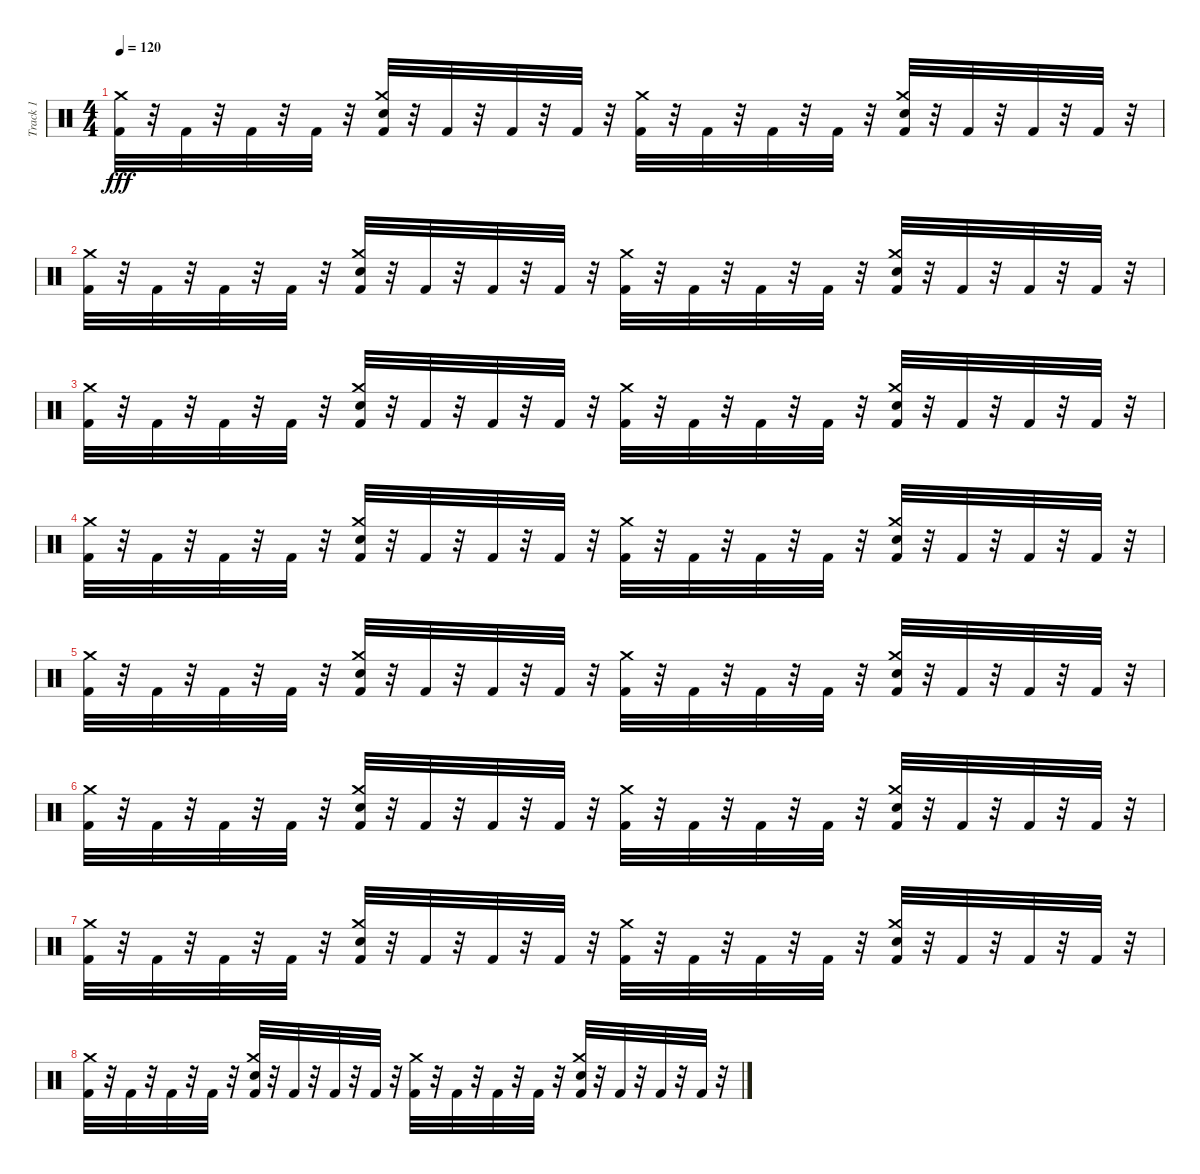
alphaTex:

\track ("Track 1" "Track 1") {instrument percussion}
\staff {score}
\articulation defaults
\ts (4 4)
\tempo 120
\clef neutral
\ks c
("Kick (hit) 2" "Crash medium (hit)").32{dy fff} r.32 "Kick (hit) 2".32 r.32 "Kick (hit) 2".32 r.32 "Kick (hit) 2".32 r.32 ("Crash medium (hit)" "Kick (hit) 2" "Snare (hit) 2").32 r.32 "Kick (hit) 2".32 r.32 "Kick (hit) 2".32 r.32 "Kick (hit) 2".32 r.32 ("Kick (hit) 2" "Crash medium (hit)").32 r.32 "Kick (hit) 2".32 r.32 "Kick (hit) 2".32 r.32 "Kick (hit) 2".32 r.32 ("Crash medium (hit)" "Kick (hit) 2" "Snare (hit) 2").32 r.32 "Kick (hit) 2".32 r.32 "Kick (hit) 2".32 r.32 "Kick (hit) 2".32 r.32 |
("Kick (hit) 2" "Crash medium (hit)").32 r.32 "Kick (hit) 2".32 r.32 "Kick (hit) 2".32 r.32 "Kick (hit) 2".32 r.32 ("Crash medium (hit)" "Kick (hit) 2" "Snare (hit) 2").32 r.32 "Kick (hit) 2".32 r.32 "Kick (hit) 2".32 r.32 "Kick (hit) 2".32 r.32 ("Kick (hit) 2" "Crash medium (hit)").32 r.32 "Kick (hit) 2".32 r.32 "Kick (hit) 2".32 r.32 "Kick (hit) 2".32 r.32 ("Snare (hit) 2" "Crash medium (hit)" "Kick (hit) 2").32 r.32 "Kick (hit) 2".32 r.32 "Kick (hit) 2".32 r.32 "Kick (hit) 2".32 r.32 |
("Kick (hit) 2" "Crash medium (hit)").32 r.32 "Kick (hit) 2".32 r.32 "Kick (hit) 2".32 r.32 "Kick (hit) 2".32 r.32 ("Crash medium (hit)" "Snare (hit) 2" "Kick (hit) 2").32 r.32 "Kick (hit) 2".32 r.32 "Kick (hit) 2".32 r.32 "Kick (hit) 2".32 r.32 ("Kick (hit) 2" "Crash medium (hit)").32 r.32 "Kick (hit) 2".32 r.32 "Kick (hit) 2".32 r.32 "Kick (hit) 2".32 r.32 ("Snare (hit) 2" "Crash medium (hit)" "Kick (hit) 2").32 r.32 "Kick (hit) 2".32 r.32 "Kick (hit) 2".32 r.32 "Kick (hit) 2".32 r.32 |
("Kick (hit) 2" "Crash medium (hit)").32 r.32 "Kick (hit) 2".32 r.32 "Kick (hit) 2".32 r.32 "Kick (hit) 2".32 r.32 ("Crash medium (hit)" "Kick (hit) 2" "Snare (hit) 2").32 r.32 "Kick (hit) 2".32 r.32 "Kick (hit) 2".32 r.32 "Kick (hit) 2".32 r.32 ("Kick (hit) 2" "Crash medium (hit)").32 r.32 "Kick (hit) 2".32 r.32 "Kick (hit) 2".32 r.32 "Kick (hit) 2".32 r.32 ("Crash medium (hit)" "Snare (hit) 2" "Kick (hit) 2").32 r.32 "Kick (hit) 2".32 r.32 "Kick (hit) 2".32 r.32 "Kick (hit) 2".32 r.32 |
("Kick (hit) 2" "Crash medium (hit)").32 r.32 "Kick (hit) 2".32 r.32 "Kick (hit) 2".32 r.32 "Kick (hit) 2".32 r.32 ("Crash medium (hit)" "Kick (hit) 2" "Snare (hit) 2").32 r.32 "Kick (hit) 2".32 r.32 "Kick (hit) 2".32 r.32 "Kick (hit) 2".32 r.32 ("Kick (hit) 2" "Crash medium (hit)").32 r.32 "Kick (hit) 2".32 r.32 "Kick (hit) 2".32 r.32 "Kick (hit) 2".32 r.32 ("Crash medium (hit)" "Kick (hit) 2" "Snare (hit) 2").32 r.32 "Kick (hit) 2".32 r.32 "Kick (hit) 2".32 r.32 "Kick (hit) 2".32 r.32 |
("Kick (hit) 2" "Crash medium (hit)").32 r.32 "Kick (hit) 2".32 r.32 "Kick (hit) 2".32 r.32 "Kick (hit) 2".32 r.32 ("Crash medium (hit)" "Kick (hit) 2" "Snare (hit) 2").32 r.32 "Kick (hit) 2".32 r.32 "Kick (hit) 2".32 r.32 "Kick (hit) 2".32 r.32 ("Kick (hit) 2" "Crash medium (hit)").32 r.32 "Kick (hit) 2".32 r.32 "Kick (hit) 2".32 r.32 "Kick (hit) 2".32 r.32 ("Snare (hit) 2" "Crash medium (hit)" "Kick (hit) 2").32 r.32 "Kick (hit) 2".32 r.32 "Kick (hit) 2".32 r.32 "Kick (hit) 2".32 r.32 |
("Kick (hit) 2" "Crash medium (hit)").32 r.32 "Kick (hit) 2".32 r.32 "Kick (hit) 2".32 r.32 "Kick (hit) 2".32 r.32 ("Crash medium (hit)" "Snare (hit) 2" "Kick (hit) 2").32 r.32 "Kick (hit) 2".32 r.32 "Kick (hit) 2".32 r.32 "Kick (hit) 2".32 r.32 ("Kick (hit) 2" "Crash medium (hit)").32 r.32 "Kick (hit) 2".32 r.32 "Kick (hit) 2".32 r.32 "Kick (hit) 2".32 r.32 ("Snare (hit) 2" "Crash medium (hit)" "Kick (hit) 2").32 r.32 "Kick (hit) 2".32 r.32 "Kick (hit) 2".32 r.32 "Kick (hit) 2".32 r.32 |
("Kick (hit) 2" "Crash medium (hit)").32 r.32 "Kick (hit) 2".32 r.32 "Kick (hit) 2".32 r.32 "Kick (hit) 2".32 r.32 ("Crash medium (hit)" "Kick (hit) 2" "Snare (hit) 2").32 r.32 "Kick (hit) 2".32 r.32 "Kick (hit) 2".32 r.32 "Kick (hit) 2".32 r.32 ("Kick (hit) 2" "Crash medium (hit)").32 r.32 "Kick (hit) 2".32 r.32 "Kick (hit) 2".32 r.32 "Kick (hit) 2".32 r.32 ("Crash medium (hit)" "Snare (hit) 2" "Kick (hit) 2").32 r.32 "Kick (hit) 2".32 r.32 "Kick (hit) 2".32 r.32 "Kick (hit) 2".32 r.32
